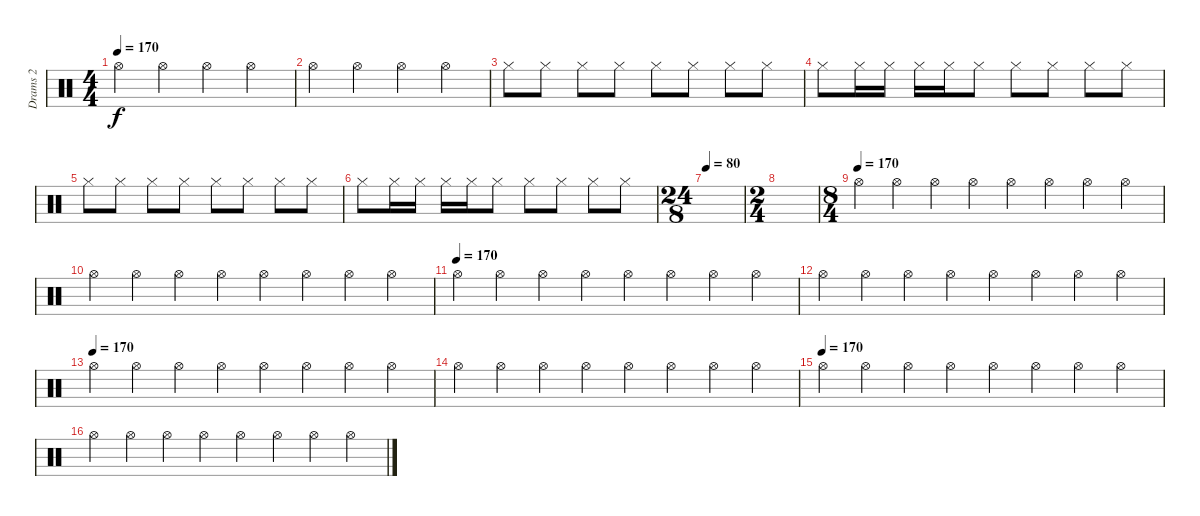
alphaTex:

\track ("Drams 2" "Drams 2") {instrument percussion}
\staff {score}
\articulation defaults
\ts (4 4)
\tempo 170
\clef neutral
\ks c "Hi-Hat (open)".4{dy f} "Hi-Hat (open)".4 "Hi-Hat (open)".4 "Hi-Hat (open)".4
|
"Hi-Hat (open)".4 "Hi-Hat (open)".4 "Hi-Hat (open)".4 "Hi-Hat (open)".4 |
"Hi-Hat (closed)".8 "Hi-Hat (closed)".8 "Hi-Hat (closed)".8 "Hi-Hat (closed)".8 "Hi-Hat (closed)".8 "Hi-Hat (closed)".8 "Hi-Hat (closed)".8 "Hi-Hat (closed)".8 |
"Hi-Hat (closed)".8 "Hi-Hat (closed)".16 "Hi-Hat (closed)".16 "Hi-Hat (closed)".16 "Hi-Hat (closed)".16 "Hi-Hat (closed)".8 "Hi-Hat (closed)".8 "Hi-Hat (closed)".8 "Hi-Hat (closed)".8 "Hi-Hat (closed)".8 |
"Hi-Hat (closed)".8 "Hi-Hat (closed)".8 "Hi-Hat (closed)".8 "Hi-Hat (closed)".8 "Hi-Hat (closed)".8 "Hi-Hat (closed)".8 "Hi-Hat (closed)".8 "Hi-Hat (closed)".8 |
"Hi-Hat (closed)".8 "Hi-Hat (closed)".16 "Hi-Hat (closed)".16 "Hi-Hat (closed)".16 "Hi-Hat (closed)".16 "Hi-Hat (closed)".8 "Hi-Hat (closed)".8 "Hi-Hat (closed)".8 "Hi-Hat (closed)".8 "Hi-Hat (closed)".8 |
\ts (24 8)
\tempo 80
|
\ts (2 4)
|
\ts (8 4)
\tempo (170)
"Hi-Hat (open)".4 "Hi-Hat (open)".4 "Hi-Hat (open)".4 "Hi-Hat (open)".4 "Hi-Hat (open)".4 "Hi-Hat (open)".4 "Hi-Hat (open)".4 "Hi-Hat (open)".4 |
"Hi-Hat (open)".4 "Hi-Hat (open)".4 "Hi-Hat (open)".4 "Hi-Hat (open)".4 "Hi-Hat (open)".4 "Hi-Hat (open)".4 "Hi-Hat (open)".4 "Hi-Hat (open)".4 |
\tempo (170)
"Hi-Hat (open)".4 "Hi-Hat (open)".4 "Hi-Hat (open)".4 "Hi-Hat (open)".4 "Hi-Hat (open)".4 "Hi-Hat (open)".4 "Hi-Hat (open)".4 "Hi-Hat (open)".4 |
"Hi-Hat (open)".4 "Hi-Hat (open)".4 "Hi-Hat (open)".4 "Hi-Hat (open)".4 "Hi-Hat (open)".4 "Hi-Hat (open)".4 "Hi-Hat (open)".4 "Hi-Hat (open)".4 |
\tempo (170)
"Hi-Hat (open)".4 "Hi-Hat (open)".4 "Hi-Hat (open)".4 "Hi-Hat (open)".4 "Hi-Hat (open)".4 "Hi-Hat (open)".4 "Hi-Hat (open)".4 "Hi-Hat (open)".4 |
"Hi-Hat (open)".4 "Hi-Hat (open)".4 "Hi-Hat (open)".4 "Hi-Hat (open)".4 "Hi-Hat (open)".4 "Hi-Hat (open)".4 "Hi-Hat (open)".4 "Hi-Hat (open)".4 |
\tempo (170)
"Hi-Hat (open)".4 "Hi-Hat (open)".4 "Hi-Hat (open)".4 "Hi-Hat (open)".4 "Hi-Hat (open)".4 "Hi-Hat (open)".4 "Hi-Hat (open)".4 "Hi-Hat (open)".4 |
"Hi-Hat (open)".4 "Hi-Hat (open)".4 "Hi-Hat (open)".4 "Hi-Hat (open)".4 "Hi-Hat (open)".4 "Hi-Hat (open)".4 "Hi-Hat (open)".4 "Hi-Hat (open)".4
